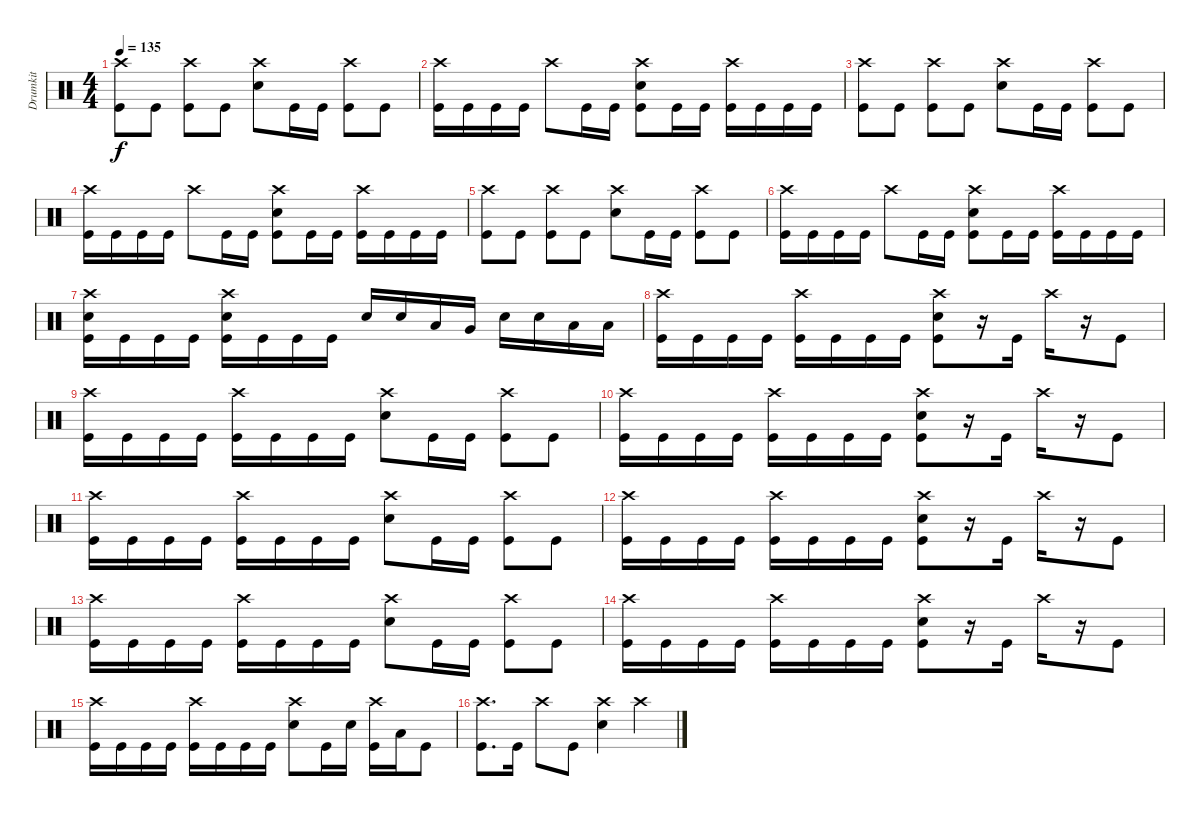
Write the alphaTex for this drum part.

\track ("Drumkit" "Drumkit") {instrument percussion}
\staff {score}
\articulation defaults
\ts (4 4)
\tempo 135
\clef neutral
\ks c
("Crash high (hit)" "Kick (hit)").8{dy f} "Kick (hit)".8 ("Crash high (hit)" "Kick (hit)").8 "Kick (hit)".8 ("Crash high (hit)" "Snare (hit) 2").8 "Kick (hit)".16 "Kick (hit)".16 ("Crash high (hit)" "Kick (hit)").8 "Kick (hit)".8 |
("Crash high (hit)" "Kick (hit)").16 "Kick (hit)".16 "Kick (hit)".16 "Kick (hit)".16 "Crash high (hit)".8 "Kick (hit)".16 "Kick (hit)".16 ("Crash high (hit)" "Snare (hit) 2" "Kick (hit)").8 "Kick (hit)".16 "Kick (hit)".16 ("Crash high (hit)" "Kick (hit)").16 "Kick (hit)".16 "Kick (hit)".16 "Kick (hit)".16 |
("Crash high (hit)" "Kick (hit)").8 "Kick (hit)".8 ("Crash high (hit)" "Kick (hit)").8 "Kick (hit)".8 ("Crash high (hit)" "Snare (hit) 2").8 "Kick (hit)".16 "Kick (hit)".16 ("Crash high (hit)" "Kick (hit)").8 "Kick (hit)".8 |
("Crash high (hit)" "Kick (hit)").16 "Kick (hit)".16 "Kick (hit)".16 "Kick (hit)".16 "Crash high (hit)".8 "Kick (hit)".16 "Kick (hit)".16 ("Crash high (hit)" "Snare (hit) 2" "Kick (hit)").8 "Kick (hit)".16 "Kick (hit)".16 ("Crash high (hit)" "Kick (hit)").16 "Kick (hit)".16 "Kick (hit)".16 "Kick (hit)".16 |
("Crash high (hit)" "Kick (hit)").8 "Kick (hit)".8 ("Crash high (hit)" "Kick (hit)").8 "Kick (hit)".8 ("Crash high (hit)" "Snare (hit) 2").8 "Kick (hit)".16 "Kick (hit)".16 ("Crash high (hit)" "Kick (hit)").8 "Kick (hit)".8 |
("Crash high (hit)" "Kick (hit)").16 "Kick (hit)".16 "Kick (hit)".16 "Kick (hit)".16 "Crash high (hit)".8 "Kick (hit)".16 "Kick (hit)".16 ("Crash high (hit)" "Snare (hit) 2" "Kick (hit)").8 "Kick (hit)".16 "Kick (hit)".16 ("Crash high (hit)" "Kick (hit)").16 "Kick (hit)".16 "Kick (hit)".16 "Kick (hit)".16 |
("Snare (hit) 2" "Crash high (hit)" "Kick (hit)").16 "Kick (hit)".16 "Kick (hit)".16 "Kick (hit)".16 ("Snare (hit) 2" "Crash high (hit)" "Kick (hit)").16 "Kick (hit)".16 "Kick (hit)".16 "Kick (hit)".16 "Snare (hit) 2".16 "Snare (hit) 2".16 "Low Tom (hit)".16 "Very Low Tom (hit)".16 "Snare (hit) 2".16 "Snare (hit) 2".16 "Low Tom (hit)".16 "Low Floor Tom (hit)".16 |
("Crash high (hit)" "Kick (hit)").16 "Kick (hit)".16 "Kick (hit)".16 "Kick (hit)".16 ("Crash high (hit)" "Kick (hit)").16 "Kick (hit)".16 "Kick (hit)".16 "Kick (hit)".16 ("Crash high (hit)" "Snare (hit) 2" "Kick (hit)").8 r.16 "Kick (hit)".16 "Crash high (hit)".16 r.16 "Kick (hit)".8 |
("Crash high (hit)" "Kick (hit)").16 "Kick (hit)".16 "Kick (hit)".16 "Kick (hit)".16 ("Crash high (hit)" "Kick (hit)").16 "Kick (hit)".16 "Kick (hit)".16 "Kick (hit)".16 ("Crash high (hit)" "Snare (hit) 2").8 "Kick (hit)".16 "Kick (hit)".16 ("Crash high (hit)" "Kick (hit)").8 "Kick (hit)".8 |
("Crash high (hit)" "Kick (hit)").16 "Kick (hit)".16 "Kick (hit)".16 "Kick (hit)".16 ("Crash high (hit)" "Kick (hit)").16 "Kick (hit)".16 "Kick (hit)".16 "Kick (hit)".16 ("Crash high (hit)" "Snare (hit) 2" "Kick (hit)").8 r.16 "Kick (hit)".16 "Crash high (hit)".16 r.16 "Kick (hit)".8 |
("Crash high (hit)" "Kick (hit)").16 "Kick (hit)".16 "Kick (hit)".16 "Kick (hit)".16 ("Crash high (hit)" "Kick (hit)").16 "Kick (hit)".16 "Kick (hit)".16 "Kick (hit)".16 ("Crash high (hit)" "Snare (hit) 2").8 "Kick (hit)".16 "Kick (hit)".16 ("Crash high (hit)" "Kick (hit)").8 "Kick (hit)".8 |
("Crash high (hit)" "Kick (hit)").16 "Kick (hit)".16 "Kick (hit)".16 "Kick (hit)".16 ("Crash high (hit)" "Kick (hit)").16 "Kick (hit)".16 "Kick (hit)".16 "Kick (hit)".16 ("Crash high (hit)" "Snare (hit) 2" "Kick (hit)").8 r.16 "Kick (hit)".16 "Crash high (hit)".16 r.16 "Kick (hit)".8 |
("Crash high (hit)" "Kick (hit)").16 "Kick (hit)".16 "Kick (hit)".16 "Kick (hit)".16 ("Crash high (hit)" "Kick (hit)").16 "Kick (hit)".16 "Kick (hit)".16 "Kick (hit)".16 ("Crash high (hit)" "Snare (hit) 2").8 "Kick (hit)".16 "Kick (hit)".16 ("Crash high (hit)" "Kick (hit)").8 "Kick (hit)".8 |
("Crash high (hit)" "Kick (hit)").16 "Kick (hit)".16 "Kick (hit)".16 "Kick (hit)".16 ("Crash high (hit)" "Kick (hit)").16 "Kick (hit)".16 "Kick (hit)".16 "Kick (hit)".16 ("Crash high (hit)" "Snare (hit) 2" "Kick (hit)").8 r.16 "Kick (hit)".16 "Crash high (hit)".16 r.16 "Kick (hit)".8 |
("Crash high (hit)" "Kick (hit)").16 "Kick (hit)".16 "Kick (hit)".16 "Kick (hit)".16 ("Crash high (hit)" "Kick (hit)").16 "Kick (hit)".16 "Kick (hit)".16 "Kick (hit)".16 ("Crash high (hit)" "Snare (hit) 2").8 "Kick (hit)".16 "Snare (hit) 2".16 ("Crash high (hit)" "Kick (hit)").16 "Low Tom (hit)".16 "Kick (hit)".8 |
("Crash high (hit)" "Kick (hit)").8{d} "Kick (hit)".16 "Crash high (hit)".8 "Kick (hit)".8 ("Crash high (hit)" "Snare (hit) 2").4 "Crash high (hit)".4
